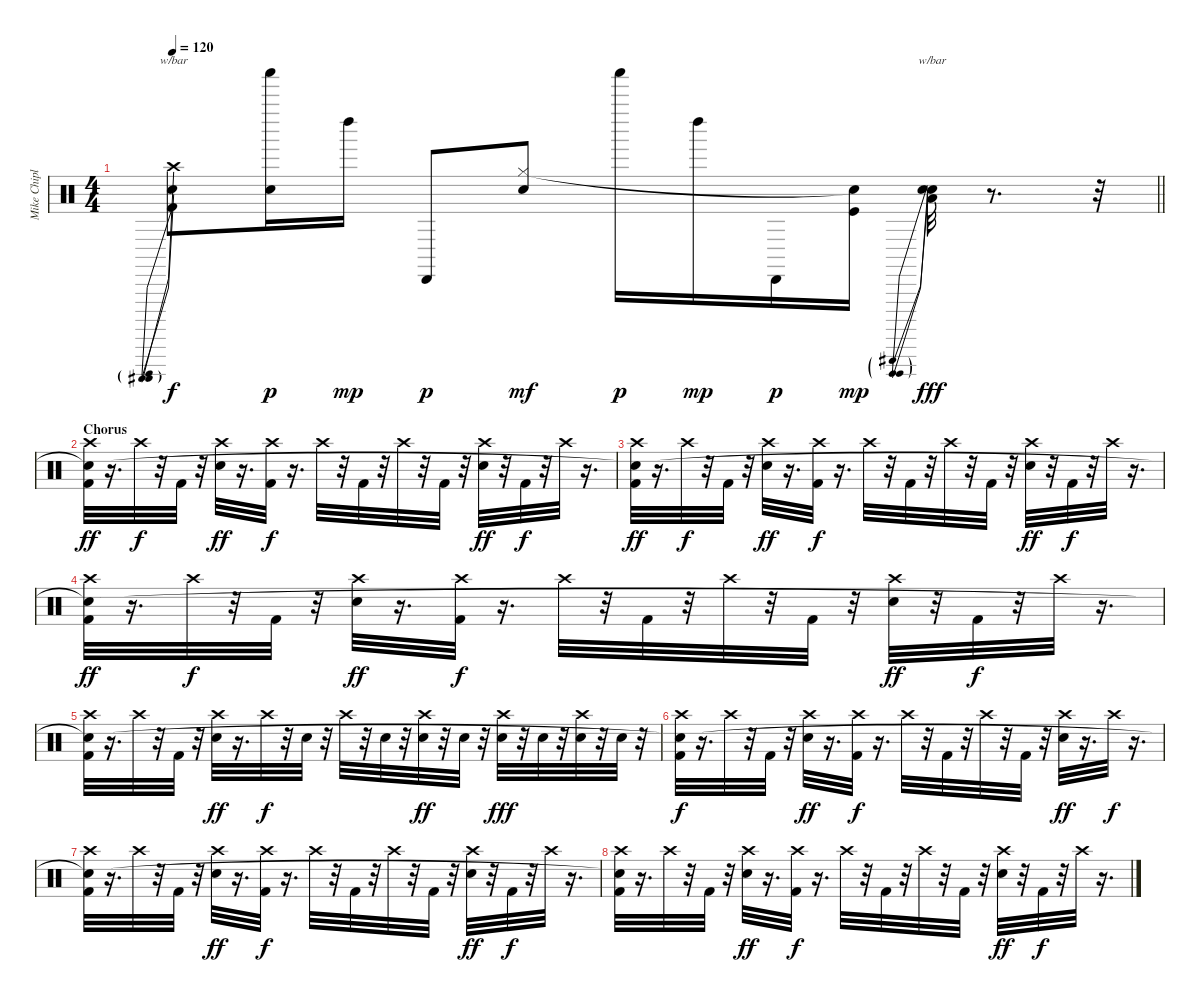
\track ("Mike Chiplin - Drums" "Mike Chipl") {instrument percussion}
\staff {score}
\articulation defaults
\ts (4 4)
\tempo 120
\clef neutral
\barLineRight lightlight
\ks c
("Kick (hit) 2" "Crash high (hit)" "Snare (hit)").8{tbe (predive default 0 -8 60 -8) dy f} ("Shaker (hit)" "Snare (hit)"{t}).16{dy p} "Left Maraca (hit)".16{dy mp} "Cabasa (hit)".8{dy p} ("Snare (hit) 2" "Hi-Hat (closed)").8{dy mf} "Shaker (hit)".16{dy p} "Left Maraca (hit)".16{dy mp} "Cabasa (hit)".16{dy p} ("Kick (hit)" "Snare (hit)"{t}).16{dy mp} ("Snare (hit) 2" "Low Tom (hit)" "Snare (hit)").32{tbe (predive default 0 -4 60 -4) dy fff} r.8{d} r.32 |
\section ("" "Chorus")
("Kick (hit) 2" "Crash high (hit)" "Snare (hit)"{t}).32{dy ff} r.16{d} "Crash high (hit)".32{dy f} r.32 "Kick (hit) 2".32 r.32 ("Snare (hit) 2" "Crash high (hit)").32{dy ff} r.16{d} ("Kick (hit) 2" "Crash high (hit)").32{dy f} r.16{d} "Crash high (hit)".32 r.32 "Kick (hit) 2".32 r.32 "Crash high (hit)".32 r.32 "Kick (hit) 2".32 r.32 ("Snare (hit) 2" "Crash high (hit)").32{dy ff} r.32 "Kick (hit) 2".32{dy f} r.32 "Crash high (hit)".32 r.16{d} |
("Kick (hit) 2" "Crash high (hit)" "Snare (hit)"{t}).32{dy ff} r.16{d} "Crash high (hit)".32{dy f} r.32 "Kick (hit) 2".32 r.32 ("Snare (hit) 2" "Crash high (hit)").32{dy ff} r.16{d} ("Kick (hit) 2" "Crash high (hit)").32{dy f} r.16{d} "Crash high (hit)".32 r.32 "Kick (hit) 2".32 r.32 "Crash high (hit)".32 r.32 "Kick (hit) 2".32 r.32 ("Snare (hit) 2" "Crash high (hit)").32{dy ff} r.32 "Kick (hit) 2".32{dy f} r.32 "Crash high (hit)".32 r.16{d} |
("Kick (hit) 2" "Crash high (hit)" "Snare (hit)"{t}).32{dy ff} r.16{d} "Crash high (hit)".32{dy f} r.32 "Kick (hit) 2".32 r.32 ("Snare (hit) 2" "Crash high (hit)").32{dy ff} r.16{d} ("Kick (hit) 2" "Crash high (hit)").32{dy f} r.16{d} "Crash high (hit)".32 r.32 "Kick (hit) 2".32 r.32 "Crash high (hit)".32 r.32 "Kick (hit) 2".32 r.32 ("Snare (hit) 2" "Crash high (hit)").32{dy ff} r.32 "Kick (hit) 2".32{dy f} r.32 "Crash high (hit)".32 r.16{d} |
("Kick (hit) 2" "Crash high (hit)" "Snare (hit)"{t}).32 r.16{d} "Crash high (hit)".32 r.32 "Kick (hit) 2".32 r.32 ("Snare (hit) 2" "Crash high (hit)").32{dy ff} r.16{d} "Crash high (hit)".32{dy f} r.32 "Snare (hit) 2".32 r.32 "Crash high (hit)".32 r.32 "Snare (hit) 2".32 r.32 ("Snare (hit) 2" "Crash high (hit)").32{dy ff} r.32 "Snare (hit) 2".32 r.32 ("Snare (hit) 2" "Crash high (hit)").32{dy fff} r.32 "Snare (hit) 2".32 r.32 ("Snare (hit) 2" "Crash high (hit)").32 r.32 "Snare (hit) 2".32 r.32 |
("Kick (hit) 2" "Crash high (hit)" "Snare (hit)"{t}).32{dy f} r.16{d} "Crash high (hit)".32 r.32 "Kick (hit) 2".32 r.32 ("Snare (hit) 2" "Crash high (hit)").32{dy ff} r.16{d} ("Kick (hit) 2" "Crash high (hit)").32{dy f} r.16{d} "Crash high (hit)".32 r.32 "Kick (hit) 2".32 r.32 "Crash high (hit)".32 r.32 "Kick (hit) 2".32 r.32 ("Snare (hit) 2" "Crash high (hit)").32{dy ff} r.16{d} "Crash high (hit)".32{dy f} r.16{d} |
("Kick (hit) 2" "Crash high (hit)" "Snare (hit)"{t}).32 r.16{d} "Crash high (hit)".32 r.32 "Kick (hit) 2".32 r.32 ("Snare (hit) 2" "Crash high (hit)").32{dy ff} r.16{d} ("Kick (hit) 2" "Crash high (hit)").32{dy f} r.16{d} "Crash high (hit)".32 r.32 "Kick (hit) 2".32 r.32 "Crash high (hit)".32 r.32 "Kick (hit) 2".32 r.32 ("Snare (hit) 2" "Crash high (hit)").32{dy ff} r.32 "Kick (hit) 2".32{dy f} r.32 "Crash high (hit)".32 r.16{d} |
("Kick (hit) 2" "Crash high (hit)" "Snare (hit)"{t}).32 r.16{d} "Crash high (hit)".32 r.32 "Kick (hit) 2".32 r.32 ("Snare (hit) 2" "Crash high (hit)").32{dy ff} r.16{d} ("Kick (hit) 2" "Crash high (hit)").32{dy f} r.16{d} "Crash high (hit)".32 r.32 "Kick (hit) 2".32 r.32 "Crash high (hit)".32 r.32 "Kick (hit) 2".32 r.32 ("Snare (hit) 2" "Crash high (hit)").32{dy ff} r.32 "Kick (hit) 2".32{dy f} r.32 "Crash high (hit)".32 r.16{d}
